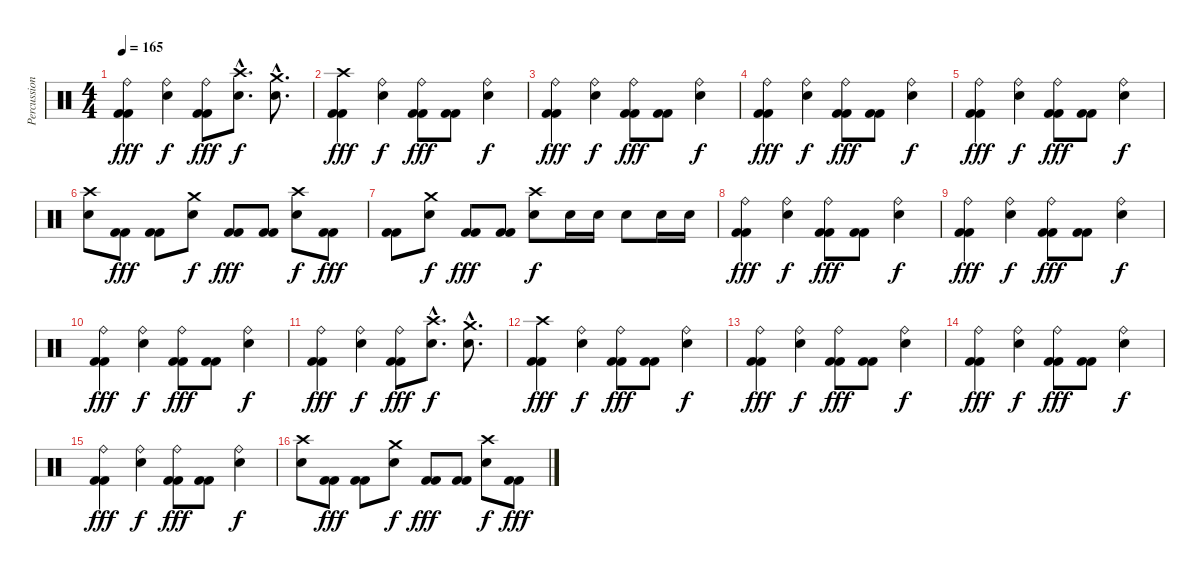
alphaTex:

\track ("Percussions" "Percussion") {instrument percussion}
\staff {score}
\articulation defaults
\ts (4 4)
\tempo 165
\clef neutral
\ks c
("Ride (bell)" "Kick (hit) 2" "Kick (hit) 2").4{dy fff} ("Ride (bell)" "Electric Snare (hit)").4{dy f} ("Ride (bell)" "Kick (hit) 2" "Kick (hit) 2").8{dy fff} ("Crash high (hit)"{hac} "Electric Snare (hit)"{hac}).8{d dy f} ("Crash medium (hit)"{hac} "Electric Snare (hit)"{hac}).8{d} |
("Crash high (hit)" "Kick (hit) 2" "Kick (hit) 2").4{dy fff volume 16} ("Ride (bell)" "Electric Snare (hit)").4{dy f} ("Ride (bell)" "Kick (hit) 2" "Kick (hit) 2").8{dy fff} ("Kick (hit) 2" "Kick (hit) 2").8 ("Ride (bell)" "Electric Snare (hit)").4{dy f} |
("Ride (bell)" "Kick (hit) 2" "Kick (hit) 2").4{dy fff volume 16} ("Ride (bell)" "Electric Snare (hit)").4{dy f} ("Ride (bell)" "Kick (hit) 2" "Kick (hit) 2").8{dy fff} ("Kick (hit) 2" "Kick (hit) 2").8 ("Ride (bell)" "Electric Snare (hit)").4{dy f} |
("Ride (bell)" "Kick (hit) 2" "Kick (hit) 2").4{dy fff} ("Ride (bell)" "Electric Snare (hit)").4{dy f} ("Ride (bell)" "Kick (hit) 2" "Kick (hit) 2").8{dy fff} ("Kick (hit) 2" "Kick (hit) 2").8 ("Ride (bell)" "Electric Snare (hit)").4{dy f} |
("Ride (bell)" "Kick (hit) 2" "Kick (hit) 2").4{dy fff} ("Ride (bell)" "Electric Snare (hit)").4{dy f} ("Ride (bell)" "Kick (hit) 2" "Kick (hit) 2").8{dy fff} ("Kick (hit) 2" "Kick (hit) 2").8 ("Ride (bell)" "Electric Snare (hit)").4{dy f} |
("Crash high (hit)" "Electric Snare (hit)").8 ("Kick (hit) 2" "Kick (hit) 2").8{dy fff} ("Kick (hit) 2" "Kick (hit) 2").8 ("Crash medium (hit)" "Electric Snare (hit)").8{dy f} ("Kick (hit) 2" "Kick (hit) 2").8{dy fff} ("Kick (hit) 2" "Kick (hit) 2").8 ("Crash high (hit)" "Electric Snare (hit)").8{dy f} ("Kick (hit) 2" "Kick (hit) 2").8{dy fff} |
("Kick (hit) 2" "Kick (hit) 2").8 ("Crash medium (hit)" "Electric Snare (hit)").8{dy f} ("Kick (hit) 2" "Kick (hit) 2").8{dy fff} ("Kick (hit) 2" "Kick (hit) 2").8 ("Crash high (hit)" "Electric Snare (hit)").8{dy f} "Electric Snare (hit)".16 "Electric Snare (hit)".16 "Electric Snare (hit)".8 "Electric Snare (hit)".16 "Electric Snare (hit)".16 |
("Ride (bell)" "Kick (hit) 2" "Kick (hit) 2").4{dy fff volume 16} ("Ride (bell)" "Electric Snare (hit)").4{dy f} ("Ride (bell)" "Kick (hit) 2" "Kick (hit) 2").8{dy fff} ("Kick (hit) 2" "Kick (hit) 2").8 ("Ride (bell)" "Electric Snare (hit)").4{dy f} |
("Ride (bell)" "Kick (hit) 2" "Kick (hit) 2").4{dy fff} ("Ride (bell)" "Electric Snare (hit)").4{dy f} ("Ride (bell)" "Kick (hit) 2" "Kick (hit) 2").8{dy fff} ("Kick (hit) 2" "Kick (hit) 2").8 ("Ride (bell)" "Electric Snare (hit)").4{dy f} |
("Ride (bell)" "Kick (hit) 2" "Kick (hit) 2").4{dy fff} ("Ride (bell)" "Electric Snare (hit)").4{dy f} ("Ride (bell)" "Kick (hit) 2" "Kick (hit) 2").8{dy fff} ("Kick (hit) 2" "Kick (hit) 2").8 ("Ride (bell)" "Electric Snare (hit)").4{dy f} |
("Ride (bell)" "Kick (hit) 2" "Kick (hit) 2").4{dy fff} ("Ride (bell)" "Electric Snare (hit)").4{dy f} ("Ride (bell)" "Kick (hit) 2" "Kick (hit) 2").8{dy fff} ("Crash high (hit)"{hac} "Electric Snare (hit)"{hac}).8{d dy f} ("Crash medium (hit)"{hac} "Electric Snare (hit)"{hac}).8{d} |
("Crash high (hit)" "Kick (hit) 2" "Kick (hit) 2").4{dy fff volume 16} ("Ride (bell)" "Electric Snare (hit)").4{dy f} ("Ride (bell)" "Kick (hit) 2" "Kick (hit) 2").8{dy fff} ("Kick (hit) 2" "Kick (hit) 2").8 ("Ride (bell)" "Electric Snare (hit)").4{dy f} |
("Ride (bell)" "Kick (hit) 2" "Kick (hit) 2").4{dy fff volume 16} ("Ride (bell)" "Electric Snare (hit)").4{dy f} ("Ride (bell)" "Kick (hit) 2" "Kick (hit) 2").8{dy fff} ("Kick (hit) 2" "Kick (hit) 2").8 ("Ride (bell)" "Electric Snare (hit)").4{dy f} |
("Ride (bell)" "Kick (hit) 2" "Kick (hit) 2").4{dy fff} ("Ride (bell)" "Electric Snare (hit)").4{dy f} ("Ride (bell)" "Kick (hit) 2" "Kick (hit) 2").8{dy fff} ("Kick (hit) 2" "Kick (hit) 2").8 ("Ride (bell)" "Electric Snare (hit)").4{dy f} |
("Ride (bell)" "Kick (hit) 2" "Kick (hit) 2").4{dy fff} ("Ride (bell)" "Electric Snare (hit)").4{dy f} ("Ride (bell)" "Kick (hit) 2" "Kick (hit) 2").8{dy fff} ("Kick (hit) 2" "Kick (hit) 2").8 ("Ride (bell)" "Electric Snare (hit)").4{dy f} |
("Crash high (hit)" "Electric Snare (hit)").8 ("Kick (hit) 2" "Kick (hit) 2").8{dy fff} ("Kick (hit) 2" "Kick (hit) 2").8 ("Crash medium (hit)" "Electric Snare (hit)").8{dy f} ("Kick (hit) 2" "Kick (hit) 2").8{dy fff} ("Kick (hit) 2" "Kick (hit) 2").8 ("Crash high (hit)" "Electric Snare (hit)").8{dy f} ("Kick (hit) 2" "Kick (hit) 2").8{dy fff}
